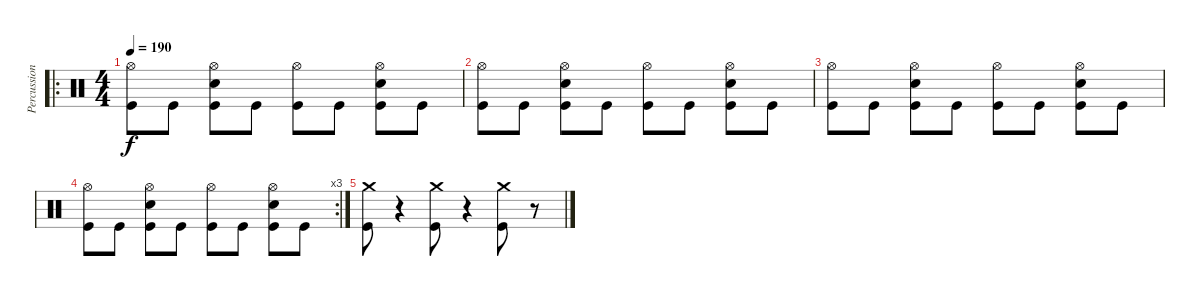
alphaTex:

\track ("Percussion" "Percussion") {instrument percussion}
\staff {score}
\articulation defaults
\ro
\ts (4 4)
\tempo 190
\clef neutral
\ks c
("Hi-Hat (open)" "Kick (hit)").8{dy f} "Kick (hit)".8 ("Hi-Hat (open)" "Snare (hit) 2" "Kick (hit)").8 "Kick (hit)".8 ("Hi-Hat (open)" "Kick (hit)").8 "Kick (hit)".8 ("Hi-Hat (open)" "Snare (hit) 2" "Kick (hit)").8 "Kick (hit)".8 |
("Hi-Hat (open)" "Kick (hit)").8 "Kick (hit)".8 ("Hi-Hat (open)" "Snare (hit) 2" "Kick (hit)").8 "Kick (hit)".8 ("Hi-Hat (open)" "Kick (hit)").8 "Kick (hit)".8 ("Hi-Hat (open)" "Snare (hit) 2" "Kick (hit)").8 "Kick (hit)".8 |
("Hi-Hat (open)" "Kick (hit)").8 "Kick (hit)".8 ("Hi-Hat (open)" "Snare (hit) 2" "Kick (hit)").8 "Kick (hit)".8 ("Hi-Hat (open)" "Kick (hit)").8 "Kick (hit)".8 ("Hi-Hat (open)" "Snare (hit) 2" "Kick (hit)").8 "Kick (hit)".8 |
\rc 3
("Hi-Hat (open)" "Kick (hit)").8 "Kick (hit)".8 ("Hi-Hat (open)" "Snare (hit) 2" "Kick (hit)").8 "Kick (hit)".8 ("Hi-Hat (open)" "Kick (hit)").8 "Kick (hit)".8 ("Hi-Hat (open)" "Snare (hit) 2" "Kick (hit)").8 "Kick (hit)".8 |
("Crash medium (hit)" "Kick (hit)").8 r.4{volume 0} ("Crash medium (hit)" "Kick (hit)").8{volume 13} r.4{volume 0} ("Crash medium (hit)" "Kick (hit)").8{volume 13} r.8{volume 0}
